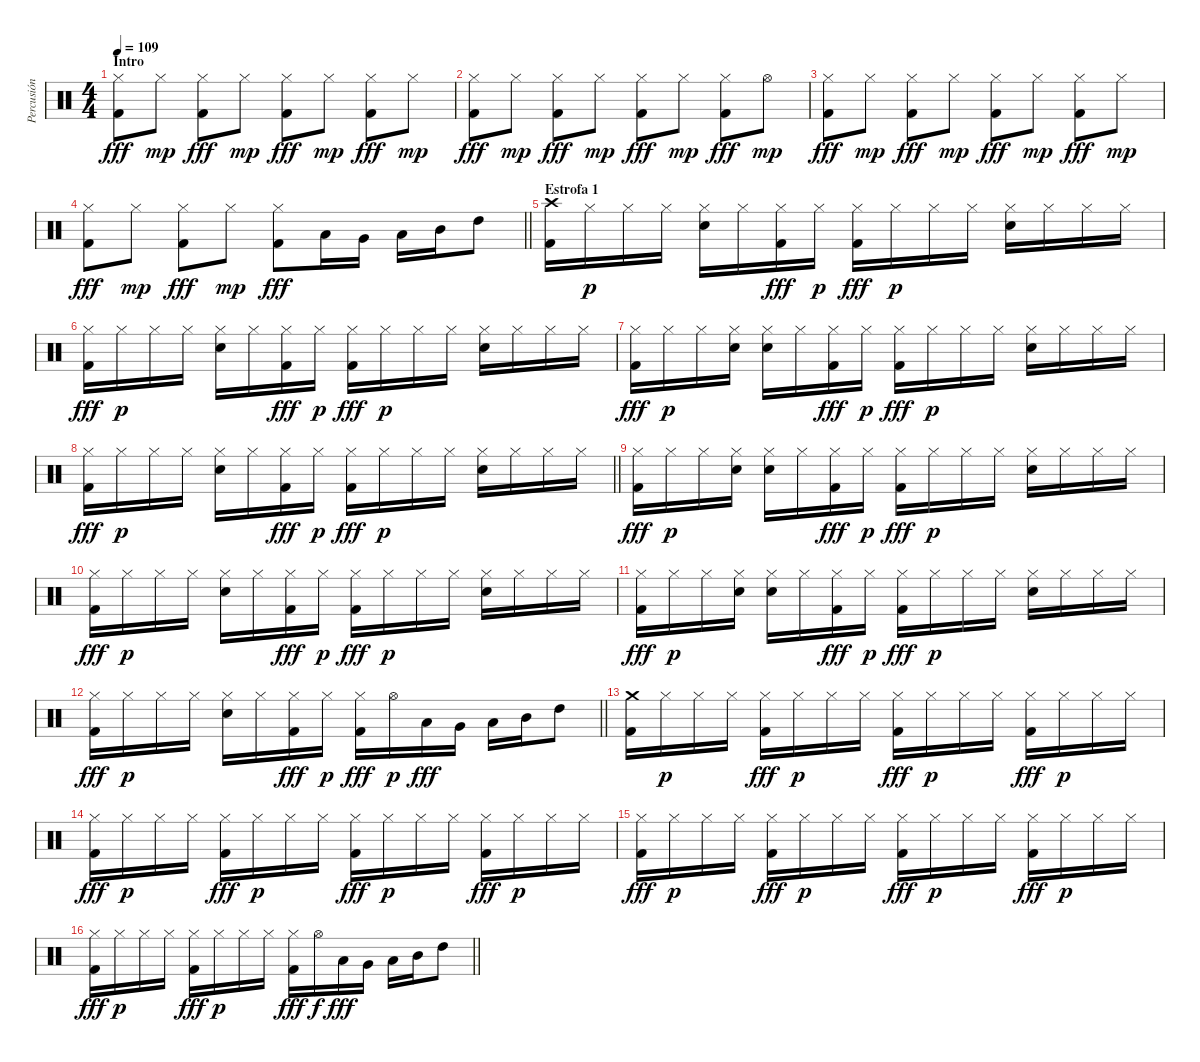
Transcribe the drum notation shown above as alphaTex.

\track ("Percusión" "Percusión") {instrument percussion}
\staff {score}
\articulation defaults
\ts (4 4)
\section ("" "Intro")
\tempo 109
\clef neutral
\ks c
("Hi-Hat (closed)" "Kick (hit) 2").8{dy fff} "Hi-Hat (closed)".8{dy mp} ("Hi-Hat (closed)" "Kick (hit) 2").8{dy fff} "Hi-Hat (closed)".8{dy mp} ("Hi-Hat (closed)" "Kick (hit) 2").8{dy fff} "Hi-Hat (closed)".8{dy mp} ("Hi-Hat (closed)" "Kick (hit) 2").8{dy fff} "Hi-Hat (closed)".8{dy mp} |
("Hi-Hat (closed)" "Kick (hit) 2").8{dy fff} "Hi-Hat (closed)".8{dy mp} ("Hi-Hat (closed)" "Kick (hit) 2").8{dy fff} "Hi-Hat (closed)".8{dy mp} ("Hi-Hat (closed)" "Kick (hit) 2").8{dy fff} "Hi-Hat (closed)".8{dy mp} ("Hi-Hat (closed)" "Kick (hit) 2").8{dy fff} "Hi-Hat (open)".8{dy mp} |
("Hi-Hat (closed)" "Kick (hit) 2").8{dy fff} "Hi-Hat (closed)".8{dy mp} ("Hi-Hat (closed)" "Kick (hit) 2").8{dy fff} "Hi-Hat (closed)".8{dy mp} ("Hi-Hat (closed)" "Kick (hit) 2").8{dy fff} "Hi-Hat (closed)".8{dy mp} ("Hi-Hat (closed)" "Kick (hit) 2").8{dy fff} "Hi-Hat (closed)".8{dy mp} |
\barLineRight lightlight
("Hi-Hat (closed)" "Kick (hit) 2").8{dy fff} "Hi-Hat (closed)".8{dy mp} ("Hi-Hat (closed)" "Kick (hit) 2").8{dy fff} "Hi-Hat (closed)".8{dy mp} ("Hi-Hat (closed)" "Kick (hit) 2").8{dy fff} "Low Floor Tom (hit)".16 "Very Low Tom (hit)".16 "Low Tom (hit)".16 "Mid Tom (hit)".16 "High Tom (hit)".8 |
\section ("" "Estrofa 1")
("Crash high (hit)" "Kick (hit) 2").16 "Hi-Hat (closed)".16{dy p} "Hi-Hat (closed)".16 "Hi-Hat (closed)".16 ("Hi-Hat (closed)" "Snare (hit) 2").16 "Hi-Hat (closed)".16 ("Hi-Hat (closed)" "Kick (hit) 2").16{dy fff} "Hi-Hat (closed)".16{dy p} ("Hi-Hat (closed)" "Kick (hit) 2").16{dy fff} "Hi-Hat (closed)".16{dy p} "Hi-Hat (closed)".16 "Hi-Hat (closed)".16 ("Hi-Hat (closed)" "Snare (hit) 2").16 "Hi-Hat (closed)".16 "Hi-Hat (closed)".16 "Hi-Hat (closed)".16 |
("Hi-Hat (closed)" "Kick (hit) 2").16{dy fff} "Hi-Hat (closed)".16{dy p} "Hi-Hat (closed)".16 "Hi-Hat (closed)".16 ("Hi-Hat (closed)" "Snare (hit) 2").16 "Hi-Hat (closed)".16 ("Hi-Hat (closed)" "Kick (hit) 2").16{dy fff} "Hi-Hat (closed)".16{dy p} ("Hi-Hat (closed)" "Kick (hit) 2").16{dy fff} "Hi-Hat (closed)".16{dy p} "Hi-Hat (closed)".16 "Hi-Hat (closed)".16 ("Hi-Hat (closed)" "Snare (hit) 2").16 "Hi-Hat (closed)".16 "Hi-Hat (closed)".16 "Hi-Hat (closed)".16 |
("Hi-Hat (closed)" "Kick (hit) 2").16{dy fff} "Hi-Hat (closed)".16{dy p} "Hi-Hat (closed)".16 ("Hi-Hat (closed)" "Snare (hit) 2").16 ("Hi-Hat (closed)" "Snare (hit) 2").16 "Hi-Hat (closed)".16 ("Hi-Hat (closed)" "Kick (hit) 2").16{dy fff} "Hi-Hat (closed)".16{dy p} ("Hi-Hat (closed)" "Kick (hit) 2").16{dy fff} "Hi-Hat (closed)".16{dy p} "Hi-Hat (closed)".16 "Hi-Hat (closed)".16 ("Hi-Hat (closed)" "Snare (hit) 2").16 "Hi-Hat (closed)".16 "Hi-Hat (closed)".16 "Hi-Hat (closed)".16 |
\barLineRight lightlight
("Hi-Hat (closed)" "Kick (hit) 2").16{dy fff} "Hi-Hat (closed)".16{dy p} "Hi-Hat (closed)".16 "Hi-Hat (closed)".16 ("Hi-Hat (closed)" "Snare (hit) 2").16 "Hi-Hat (closed)".16 ("Hi-Hat (closed)" "Kick (hit) 2").16{dy fff} "Hi-Hat (closed)".16{dy p} ("Hi-Hat (closed)" "Kick (hit) 2").16{dy fff} "Hi-Hat (closed)".16{dy p} "Hi-Hat (closed)".16 "Hi-Hat (closed)".16 ("Hi-Hat (closed)" "Snare (hit) 2").16 "Hi-Hat (closed)".16 "Hi-Hat (closed)".16 "Hi-Hat (closed)".16 |
("Hi-Hat (closed)" "Kick (hit) 2").16{dy fff} "Hi-Hat (closed)".16{dy p} "Hi-Hat (closed)".16 ("Hi-Hat (closed)" "Snare (hit) 2").16 ("Hi-Hat (closed)" "Snare (hit) 2").16 "Hi-Hat (closed)".16 ("Hi-Hat (closed)" "Kick (hit) 2").16{dy fff} "Hi-Hat (closed)".16{dy p} ("Hi-Hat (closed)" "Kick (hit) 2").16{dy fff} "Hi-Hat (closed)".16{dy p} "Hi-Hat (closed)".16 "Hi-Hat (closed)".16 ("Hi-Hat (closed)" "Snare (hit) 2").16 "Hi-Hat (closed)".16 "Hi-Hat (closed)".16 "Hi-Hat (closed)".16 |
("Hi-Hat (closed)" "Kick (hit) 2").16{dy fff} "Hi-Hat (closed)".16{dy p} "Hi-Hat (closed)".16 "Hi-Hat (closed)".16 ("Hi-Hat (closed)" "Snare (hit) 2").16 "Hi-Hat (closed)".16 ("Hi-Hat (closed)" "Kick (hit) 2").16{dy fff} "Hi-Hat (closed)".16{dy p} ("Hi-Hat (closed)" "Kick (hit) 2").16{dy fff} "Hi-Hat (closed)".16{dy p} "Hi-Hat (closed)".16 "Hi-Hat (closed)".16 ("Hi-Hat (closed)" "Snare (hit) 2").16 "Hi-Hat (closed)".16 "Hi-Hat (closed)".16 "Hi-Hat (closed)".16 |
("Hi-Hat (closed)" "Kick (hit) 2").16{dy fff} "Hi-Hat (closed)".16{dy p} "Hi-Hat (closed)".16 ("Hi-Hat (closed)" "Snare (hit) 2").16 ("Hi-Hat (closed)" "Snare (hit) 2").16 "Hi-Hat (closed)".16 ("Hi-Hat (closed)" "Kick (hit) 2").16{dy fff} "Hi-Hat (closed)".16{dy p} ("Hi-Hat (closed)" "Kick (hit) 2").16{dy fff} "Hi-Hat (closed)".16{dy p} "Hi-Hat (closed)".16 "Hi-Hat (closed)".16 ("Hi-Hat (closed)" "Snare (hit) 2").16 "Hi-Hat (closed)".16 "Hi-Hat (closed)".16 "Hi-Hat (closed)".16 |
\barLineRight lightlight
("Hi-Hat (closed)" "Kick (hit) 2").16{dy fff} "Hi-Hat (closed)".16{dy p} "Hi-Hat (closed)".16 "Hi-Hat (closed)".16 ("Hi-Hat (closed)" "Snare (hit) 2").16 "Hi-Hat (closed)".16 ("Hi-Hat (closed)" "Kick (hit) 2").16{dy fff} "Hi-Hat (closed)".16{dy p} ("Hi-Hat (closed)" "Kick (hit) 2").16{dy fff} "Hi-Hat (open)".16{dy p} "Low Floor Tom (hit)".16{dy fff} "Very Low Tom (hit)".16 "Low Tom (hit)".16 "Mid Tom (hit)".16 "High Tom (hit)".8 |
("Crash medium (hit)" "Kick (hit) 2").16 "Hi-Hat (closed)".16{dy p} "Hi-Hat (closed)".16 "Hi-Hat (closed)".16 ("Hi-Hat (closed)" "Kick (hit) 2").16{dy fff} "Hi-Hat (closed)".16{dy p} "Hi-Hat (closed)".16 "Hi-Hat (closed)".16 ("Hi-Hat (closed)" "Kick (hit) 2").16{dy fff} "Hi-Hat (closed)".16{dy p} "Hi-Hat (closed)".16 "Hi-Hat (closed)".16 ("Hi-Hat (closed)" "Kick (hit) 2").16{dy fff} "Hi-Hat (closed)".16{dy p} "Hi-Hat (closed)".16 "Hi-Hat (closed)".16 |
("Hi-Hat (closed)" "Kick (hit) 2").16{dy fff} "Hi-Hat (closed)".16{dy p} "Hi-Hat (closed)".16 "Hi-Hat (closed)".16 ("Hi-Hat (closed)" "Kick (hit) 2").16{dy fff} "Hi-Hat (closed)".16{dy p} "Hi-Hat (closed)".16 "Hi-Hat (closed)".16 ("Hi-Hat (closed)" "Kick (hit) 2").16{dy fff} "Hi-Hat (closed)".16{dy p} "Hi-Hat (closed)".16 "Hi-Hat (closed)".16 ("Hi-Hat (closed)" "Kick (hit) 2").16{dy fff} "Hi-Hat (closed)".16{dy p} "Hi-Hat (closed)".16 "Hi-Hat (closed)".16 |
("Hi-Hat (closed)" "Kick (hit) 2").16{dy fff} "Hi-Hat (closed)".16{dy p} "Hi-Hat (closed)".16 "Hi-Hat (closed)".16 ("Hi-Hat (closed)" "Kick (hit) 2").16{dy fff} "Hi-Hat (closed)".16{dy p} "Hi-Hat (closed)".16 "Hi-Hat (closed)".16 ("Hi-Hat (closed)" "Kick (hit) 2").16{dy fff} "Hi-Hat (closed)".16{dy p} "Hi-Hat (closed)".16 "Hi-Hat (closed)".16 ("Hi-Hat (closed)" "Kick (hit) 2").16{dy fff} "Hi-Hat (closed)".16{dy p} "Hi-Hat (closed)".16 "Hi-Hat (closed)".16 |
\barLineRight lightlight
("Hi-Hat (closed)" "Kick (hit) 2").16{dy fff} "Hi-Hat (closed)".16{dy p} "Hi-Hat (closed)".16 "Hi-Hat (closed)".16 ("Hi-Hat (closed)" "Kick (hit) 2").16{dy fff} "Hi-Hat (closed)".16{dy p} "Hi-Hat (closed)".16 "Hi-Hat (closed)".16 ("Hi-Hat (closed)" "Kick (hit) 2").16{dy fff} "Hi-Hat (open)".16{dy f} "Low Floor Tom (hit)".16{dy fff} "Very Low Tom (hit)".16 "Low Tom (hit)".16 "Mid Tom (hit)".16 "High Tom (hit)".8
